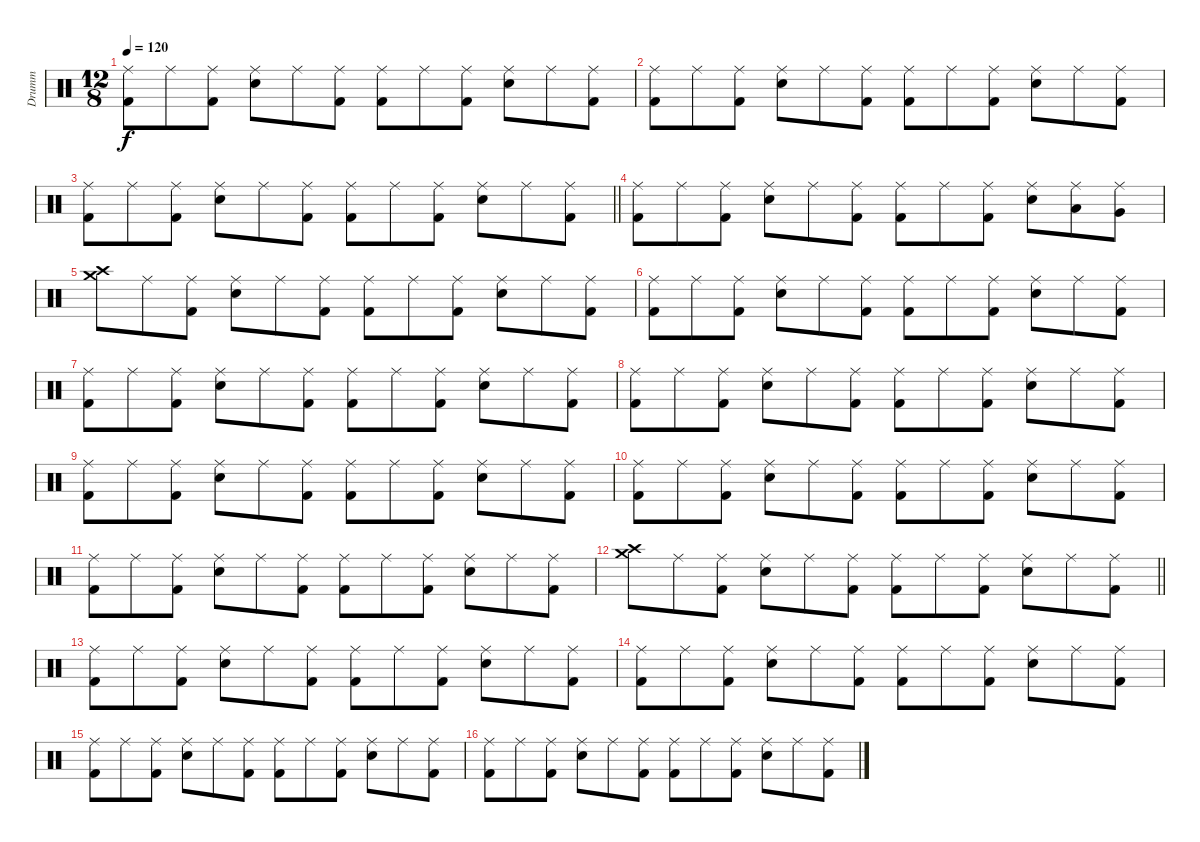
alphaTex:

\track ("Drumm" "Drumm") {instrument percussion}
\staff {score}
\articulation defaults
\ts (12 8)
\tempo 120
\clef neutral
\ks c
("Kick (hit) 2" "Ride (middle)").8{dy f} "Ride (middle)".8 ("Kick (hit) 2" "Ride (middle)").8 ("Electric Snare (hit)" "Ride (middle)").8 "Ride (middle)".8 ("Kick (hit) 2" "Ride (middle)").8 ("Kick (hit) 2" "Ride (middle)").8 "Ride (middle)".8 ("Kick (hit) 2" "Ride (middle)").8 ("Electric Snare (hit)" "Ride (middle)").8 "Ride (middle)".8 ("Kick (hit) 2" "Ride (middle)").8 |
("Kick (hit) 2" "Ride (middle)").8 "Ride (middle)".8 ("Kick (hit) 2" "Ride (middle)").8 ("Electric Snare (hit)" "Ride (middle)").8 "Ride (middle)".8 ("Kick (hit) 2" "Ride (middle)").8 ("Kick (hit) 2" "Ride (middle)").8 "Ride (middle)".8 ("Kick (hit) 2" "Ride (middle)").8 ("Electric Snare (hit)" "Ride (middle)").8 "Ride (middle)".8 ("Kick (hit) 2" "Ride (middle)").8 |
\barLineRight lightlight
("Kick (hit) 2" "Ride (middle)").8 "Ride (middle)".8 ("Kick (hit) 2" "Ride (middle)").8 ("Electric Snare (hit)" "Ride (middle)").8 "Ride (middle)".8 ("Kick (hit) 2" "Ride (middle)").8 ("Kick (hit) 2" "Ride (middle)").8 "Ride (middle)".8 ("Kick (hit) 2" "Ride (middle)").8 ("Electric Snare (hit)" "Ride (middle)").8 "Ride (middle)".8 ("Kick (hit) 2" "Ride (middle)").8 |
("Kick (hit) 2" "Ride (middle)").8 "Ride (middle)".8 ("Kick (hit) 2" "Ride (middle)").8 ("Electric Snare (hit)" "Ride (middle)").8 "Ride (middle)".8 ("Kick (hit) 2" "Ride (middle)").8 ("Kick (hit) 2" "Ride (middle)").8 "Ride (middle)".8 ("Kick (hit) 2" "Ride (middle)").8 ("Electric Snare (hit)" "Ride (middle)").8 ("Low Tom (hit)" "Ride (middle)").8 ("Very Low Tom (hit)" "Ride (middle)").8 |
("Crash high (hit)" "Crash medium (hit)").8 "Ride (middle)".8 ("Kick (hit) 2" "Ride (middle)").8 ("Electric Snare (hit)" "Ride (middle)").8 "Ride (middle)".8 ("Kick (hit) 2" "Ride (middle)").8 ("Kick (hit) 2" "Ride (middle)").8 "Ride (middle)".8 ("Kick (hit) 2" "Ride (middle)").8 ("Electric Snare (hit)" "Ride (middle)").8 "Ride (middle)".8 ("Kick (hit) 2" "Ride (middle)").8 |
("Kick (hit) 2" "Ride (middle)").8 "Ride (middle)".8 ("Kick (hit) 2" "Ride (middle)").8 ("Electric Snare (hit)" "Ride (middle)").8 "Ride (middle)".8 ("Kick (hit) 2" "Ride (middle)").8 ("Kick (hit) 2" "Ride (middle)").8 "Ride (middle)".8 ("Kick (hit) 2" "Ride (middle)").8 ("Electric Snare (hit)" "Ride (middle)").8 "Ride (middle)".8 ("Kick (hit) 2" "Ride (middle)").8 |
("Kick (hit) 2" "Ride (middle)").8 "Ride (middle)".8 ("Kick (hit) 2" "Ride (middle)").8 ("Electric Snare (hit)" "Ride (middle)").8 "Ride (middle)".8 ("Kick (hit) 2" "Ride (middle)").8 ("Kick (hit) 2" "Ride (middle)").8 "Ride (middle)".8 ("Kick (hit) 2" "Ride (middle)").8 ("Electric Snare (hit)" "Ride (middle)").8 "Ride (middle)".8 ("Kick (hit) 2" "Ride (middle)").8 |
("Kick (hit) 2" "Ride (middle)").8 "Ride (middle)".8 ("Kick (hit) 2" "Ride (middle)").8 ("Electric Snare (hit)" "Ride (middle)").8 "Ride (middle)".8 ("Kick (hit) 2" "Ride (middle)").8 ("Kick (hit) 2" "Ride (middle)").8 "Ride (middle)".8 ("Kick (hit) 2" "Ride (middle)").8 ("Electric Snare (hit)" "Ride (middle)").8 "Ride (middle)".8 ("Kick (hit) 2" "Ride (middle)").8 |
("Kick (hit) 2" "Ride (middle)").8 "Ride (middle)".8 ("Kick (hit) 2" "Ride (middle)").8 ("Electric Snare (hit)" "Ride (middle)").8 "Ride (middle)".8 ("Kick (hit) 2" "Ride (middle)").8 ("Kick (hit) 2" "Ride (middle)").8 "Ride (middle)".8 ("Kick (hit) 2" "Ride (middle)").8 ("Electric Snare (hit)" "Ride (middle)").8 "Ride (middle)".8 ("Kick (hit) 2" "Ride (middle)").8 |
("Kick (hit) 2" "Ride (middle)").8 "Ride (middle)".8 ("Kick (hit) 2" "Ride (middle)").8 ("Electric Snare (hit)" "Ride (middle)").8 "Ride (middle)".8 ("Kick (hit) 2" "Ride (middle)").8 ("Kick (hit) 2" "Ride (middle)").8 "Ride (middle)".8 ("Kick (hit) 2" "Ride (middle)").8 ("Electric Snare (hit)" "Ride (middle)").8 "Ride (middle)".8 ("Kick (hit) 2" "Ride (middle)").8 |
("Kick (hit) 2" "Ride (middle)").8 "Ride (middle)".8 ("Kick (hit) 2" "Ride (middle)").8 ("Electric Snare (hit)" "Ride (middle)").8 "Ride (middle)".8 ("Kick (hit) 2" "Ride (middle)").8 ("Kick (hit) 2" "Ride (middle)").8 "Ride (middle)".8 ("Kick (hit) 2" "Ride (middle)").8 ("Electric Snare (hit)" "Ride (middle)").8 "Ride (middle)".8 ("Kick (hit) 2" "Ride (middle)").8 |
\barLineRight lightlight
("Crash high (hit)" "Crash medium (hit)").8 "Ride (middle)".8 ("Kick (hit) 2" "Ride (middle)").8 ("Electric Snare (hit)" "Ride (middle)").8 "Ride (middle)".8 ("Kick (hit) 2" "Ride (middle)").8 ("Kick (hit) 2" "Ride (middle)").8 "Ride (middle)".8 ("Kick (hit) 2" "Ride (middle)").8 ("Electric Snare (hit)" "Ride (middle)").8 "Ride (middle)".8 ("Kick (hit) 2" "Ride (middle)").8 |
("Kick (hit) 2" "Ride (middle)").8 "Ride (middle)".8 ("Kick (hit) 2" "Ride (middle)").8 ("Electric Snare (hit)" "Ride (middle)").8 "Ride (middle)".8 ("Kick (hit) 2" "Ride (middle)").8 ("Kick (hit) 2" "Ride (middle)").8 "Ride (middle)".8 ("Kick (hit) 2" "Ride (middle)").8 ("Electric Snare (hit)" "Ride (middle)").8 "Ride (middle)".8 ("Kick (hit) 2" "Ride (middle)").8 |
("Kick (hit) 2" "Ride (middle)").8 "Ride (middle)".8 ("Kick (hit) 2" "Ride (middle)").8 ("Electric Snare (hit)" "Ride (middle)").8 "Ride (middle)".8 ("Kick (hit) 2" "Ride (middle)").8 ("Kick (hit) 2" "Ride (middle)").8 "Ride (middle)".8 ("Kick (hit) 2" "Ride (middle)").8 ("Electric Snare (hit)" "Ride (middle)").8 "Ride (middle)".8 ("Kick (hit) 2" "Ride (middle)").8 |
("Kick (hit) 2" "Ride (middle)").8 "Ride (middle)".8 ("Kick (hit) 2" "Ride (middle)").8 ("Electric Snare (hit)" "Ride (middle)").8 "Ride (middle)".8 ("Kick (hit) 2" "Ride (middle)").8 ("Kick (hit) 2" "Ride (middle)").8 "Ride (middle)".8 ("Kick (hit) 2" "Ride (middle)").8 ("Electric Snare (hit)" "Ride (middle)").8 "Ride (middle)".8 ("Kick (hit) 2" "Ride (middle)").8 |
("Kick (hit) 2" "Ride (middle)").8 "Ride (middle)".8 ("Kick (hit) 2" "Ride (middle)").8 ("Electric Snare (hit)" "Ride (middle)").8 "Ride (middle)".8 ("Kick (hit) 2" "Ride (middle)").8 ("Kick (hit) 2" "Ride (middle)").8 "Ride (middle)".8 ("Kick (hit) 2" "Ride (middle)").8 ("Electric Snare (hit)" "Ride (middle)").8 "Ride (middle)".8 ("Kick (hit) 2" "Ride (middle)").8
